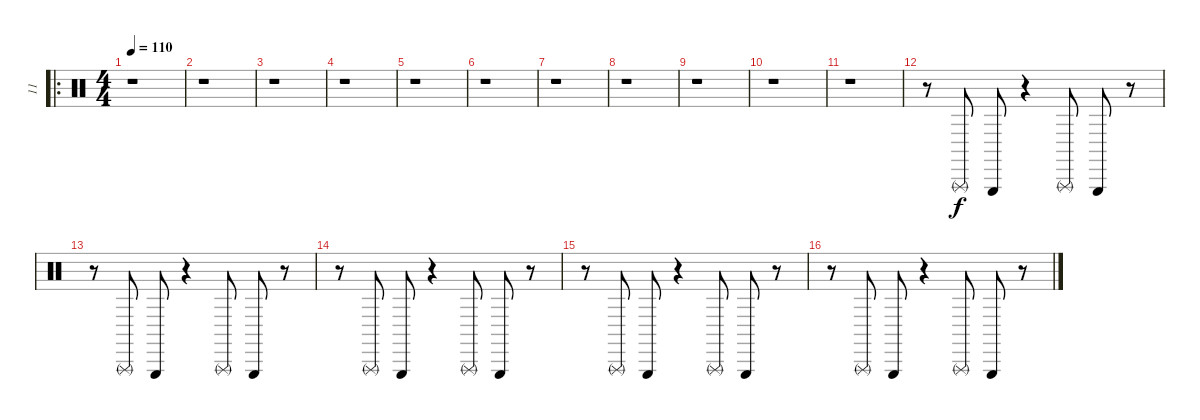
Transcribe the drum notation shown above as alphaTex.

\track ("11" "11") {instrument percussion}
\staff {score}
\articulation defaults
\ro
\ts (4 4)
\tempo 110
\clef neutral
\ks c
r.1{dy f} |
r.1 |
r.1 |
r.1 |
r.1 |
r.1 |
r.1 |
r.1 |
r.1 |
r.1 |
r.1 |
r.8 "Triangle (rnute)".8 "Triangle (hit)".8 r.4 "Triangle (rnute)".8 "Triangle (hit)".8 r.8 |
r.8 "Triangle (rnute)".8 "Triangle (hit)".8 r.4 "Triangle (rnute)".8 "Triangle (hit)".8 r.8 |
r.8 "Triangle (rnute)".8 "Triangle (hit)".8 r.4 "Triangle (rnute)".8 "Triangle (hit)".8 r.8 |
r.8 "Triangle (rnute)".8 "Triangle (hit)".8 r.4 "Triangle (rnute)".8 "Triangle (hit)".8 r.8 |
r.8 "Triangle (rnute)".8 "Triangle (hit)".8 r.4 "Triangle (rnute)".8 "Triangle (hit)".8 r.8
